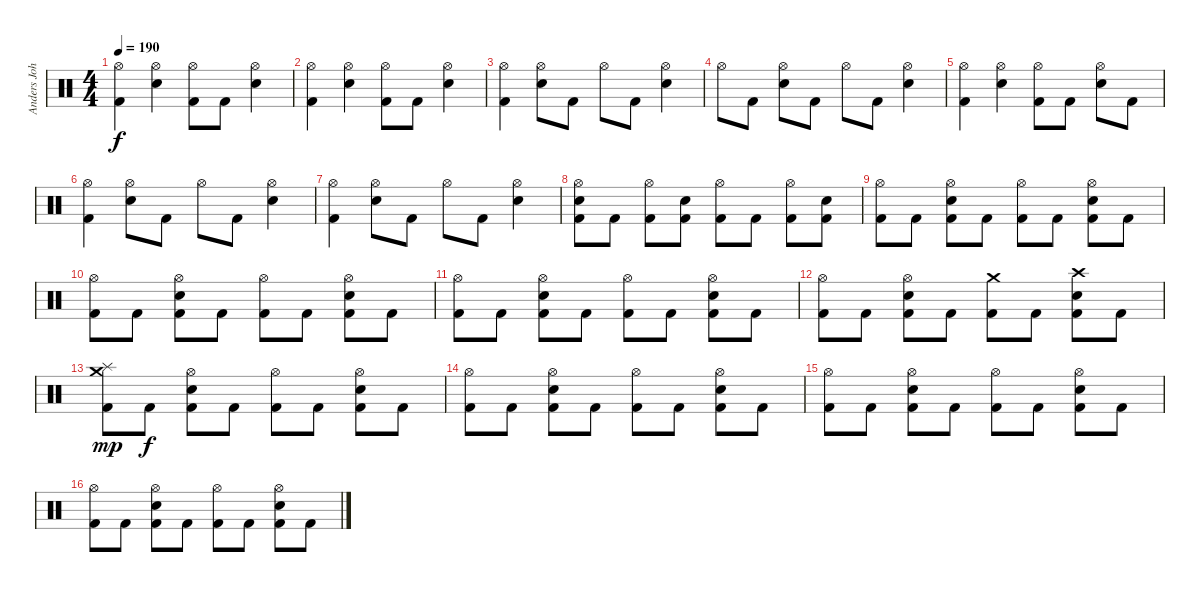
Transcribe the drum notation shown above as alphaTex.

\track ("Anders Johansson Drums" "Anders Joh") {instrument percussion}
\staff {score}
\articulation defaults
\ts (4 4)
\tempo 190
\clef neutral
\ks c
("Hi-Hat (open)" "Kick (hit) 2").4{dy f} ("Hi-Hat (open)" "Snare (hit) 2").4 ("Hi-Hat (open)" "Kick (hit) 2").8 "Kick (hit) 2".8 ("Hi-Hat (open)" "Snare (hit) 2").4 |
("Hi-Hat (open)" "Kick (hit) 2").4 ("Hi-Hat (open)" "Snare (hit) 2").4 ("Hi-Hat (open)" "Kick (hit) 2").8 "Kick (hit) 2".8 ("Hi-Hat (open)" "Snare (hit) 2").4 |
("Hi-Hat (open)" "Kick (hit) 2").4 ("Hi-Hat (open)" "Snare (hit) 2").8 "Kick (hit) 2".8 "Hi-Hat (open)".8 "Kick (hit) 2".8 ("Hi-Hat (open)" "Snare (hit) 2").4 |
"Hi-Hat (open)".8 "Kick (hit) 2".8 ("Hi-Hat (open)" "Snare (hit) 2").8 "Kick (hit) 2".8 "Hi-Hat (open)".8 "Kick (hit) 2".8 ("Hi-Hat (open)" "Snare (hit) 2").4 |
("Hi-Hat (open)" "Kick (hit) 2").4 ("Hi-Hat (open)" "Snare (hit) 2").4 ("Hi-Hat (open)" "Kick (hit) 2").8 "Kick (hit) 2".8 ("Hi-Hat (open)" "Snare (hit) 2").8 "Kick (hit) 2".8 |
("Hi-Hat (open)" "Kick (hit) 2").4 ("Hi-Hat (open)" "Snare (hit) 2").8 "Kick (hit) 2".8 "Hi-Hat (open)".8 "Kick (hit) 2".8 ("Hi-Hat (open)" "Snare (hit) 2").4 |
("Hi-Hat (open)" "Kick (hit) 2").4 ("Hi-Hat (open)" "Snare (hit) 2").8 "Kick (hit) 2".8 "Hi-Hat (open)".8 "Kick (hit) 2".8 ("Hi-Hat (open)" "Snare (hit) 2").4 |
("Hi-Hat (open)" "Snare (hit) 2" "Kick (hit) 2").8 "Kick (hit) 2".8 ("Hi-Hat (open)" "Kick (hit) 2").8 ("Snare (hit) 2" "Kick (hit) 2").8 ("Hi-Hat (open)" "Kick (hit) 2").8 "Kick (hit) 2".8 ("Hi-Hat (open)" "Kick (hit) 2").8 ("Snare (hit) 2" "Kick (hit) 2").8 |
("Hi-Hat (open)" "Kick (hit) 2").8 "Kick (hit) 2".8 ("Hi-Hat (open)" "Snare (hit) 2" "Kick (hit) 2").8 "Kick (hit) 2".8 ("Hi-Hat (open)" "Kick (hit) 2").8 "Kick (hit) 2".8 ("Hi-Hat (open)" "Snare (hit) 2" "Kick (hit) 2").8 "Kick (hit) 2".8 |
("Hi-Hat (open)" "Kick (hit) 2").8 "Kick (hit) 2".8 ("Hi-Hat (open)" "Snare (hit) 2" "Kick (hit) 2").8 "Kick (hit) 2".8 ("Hi-Hat (open)" "Kick (hit) 2").8 "Kick (hit) 2".8 ("Hi-Hat (open)" "Snare (hit) 2" "Kick (hit) 2").8 "Kick (hit) 2".8 |
("Hi-Hat (open)" "Kick (hit) 2").8 "Kick (hit) 2".8 ("Hi-Hat (open)" "Snare (hit) 2" "Kick (hit) 2").8 "Kick (hit) 2".8 ("Hi-Hat (open)" "Kick (hit) 2").8 "Kick (hit) 2".8 ("Hi-Hat (open)" "Snare (hit) 2" "Kick (hit) 2").8 "Kick (hit) 2".8 |
("Hi-Hat (open)" "Kick (hit) 2").8 "Kick (hit) 2".8 ("Hi-Hat (open)" "Snare (hit) 2" "Kick (hit) 2").8 "Kick (hit) 2".8 ("Crash medium (hit)" "Kick (hit) 2").8 "Kick (hit) 2".8 ("Crash high (hit)" "Snare (hit) 2" "Kick (hit) 2").8 "Kick (hit) 2".8 |
("Crash medium (hit)" "Splash (hit)" "Kick (hit) 2").8{dy mp} "Kick (hit) 2".8{dy f} ("Hi-Hat (open)" "Snare (hit) 2" "Kick (hit) 2").8 "Kick (hit) 2".8 ("Hi-Hat (open)" "Kick (hit) 2").8 "Kick (hit) 2".8 ("Hi-Hat (open)" "Snare (hit) 2" "Kick (hit) 2").8 "Kick (hit) 2".8 |
("Hi-Hat (open)" "Kick (hit) 2").8 "Kick (hit) 2".8 ("Hi-Hat (open)" "Snare (hit) 2" "Kick (hit) 2").8 "Kick (hit) 2".8 ("Hi-Hat (open)" "Kick (hit) 2").8 "Kick (hit) 2".8 ("Hi-Hat (open)" "Snare (hit) 2" "Kick (hit) 2").8 "Kick (hit) 2".8 |
("Hi-Hat (open)" "Kick (hit) 2").8 "Kick (hit) 2".8 ("Hi-Hat (open)" "Snare (hit) 2" "Kick (hit) 2").8 "Kick (hit) 2".8 ("Hi-Hat (open)" "Kick (hit) 2").8 "Kick (hit) 2".8 ("Hi-Hat (open)" "Snare (hit) 2" "Kick (hit) 2").8 "Kick (hit) 2".8 |
("Hi-Hat (open)" "Kick (hit) 2").8 "Kick (hit) 2".8 ("Hi-Hat (open)" "Snare (hit) 2" "Kick (hit) 2").8 "Kick (hit) 2".8 ("Hi-Hat (open)" "Kick (hit) 2").8 "Kick (hit) 2".8 ("Hi-Hat (open)" "Snare (hit) 2" "Kick (hit) 2").8 "Kick (hit) 2".8
